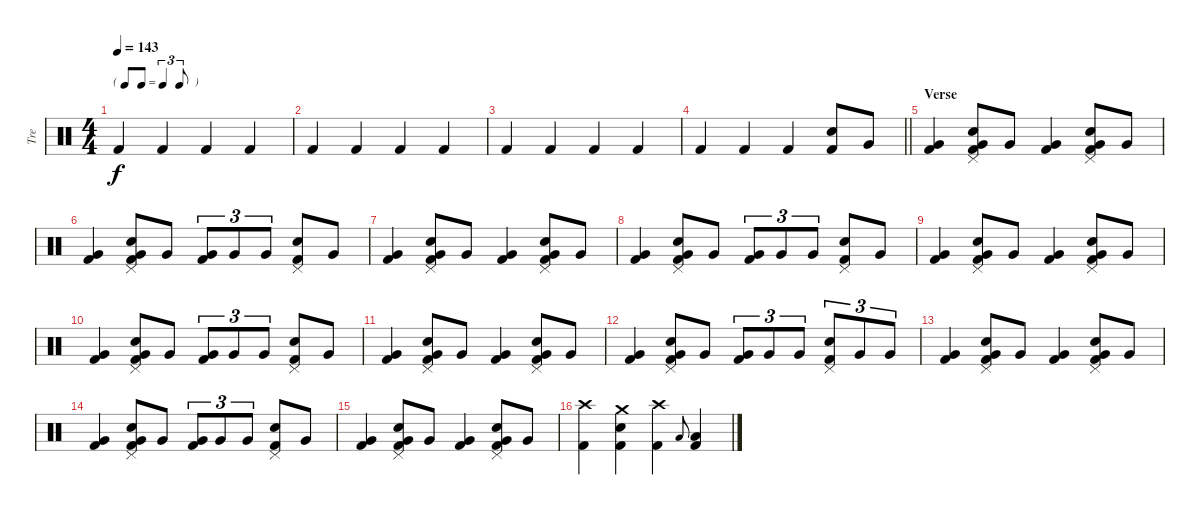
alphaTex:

\track ("Tre" "Tre") {instrument percussion}
\staff {score}
\articulation defaults
\ts (4 4)
\tf triplet8th
\tempo 143
\clef neutral
\ks c "Kick (hit) 2".4{dy f} "Kick (hit) 2".4 "Kick (hit) 2".4 "Kick (hit) 2".4
|
"Kick (hit) 2".4 "Kick (hit) 2".4 "Kick (hit) 2".4 "Kick (hit) 2".4 |
"Kick (hit) 2".4 "Kick (hit) 2".4 "Kick (hit) 2".4 "Kick (hit) 2".4 |
\barLineRight lightlight "Kick (hit) 2".4 "Kick (hit) 2".4 "Kick (hit) 2".4
("Snare (hit) 2" "Kick (hit) 2").8 "Very Low Tom (hit)".8 |
\section ("" "Verse")
("Very Low Tom (hit)" "Kick (hit) 2").4 ("Pedal Hi-Hat (hit)" "Snare (hit) 2" "Very Low Tom (hit)" "Kick (hit) 2").8 "Very Low Tom (hit)".8 ("Very Low Tom (hit)" "Kick (hit) 2").4 ("Pedal Hi-Hat (hit)" "Snare (hit) 2" "Very Low Tom (hit)" "Kick (hit) 2").8 "Very Low Tom (hit)".8 |
("Very Low Tom (hit)" "Kick (hit) 2").4 ("Pedal Hi-Hat (hit)" "Snare (hit) 2" "Very Low Tom (hit)" "Kick (hit) 2").8 "Very Low Tom (hit)".8 ("Very Low Tom (hit)" "Kick (hit) 2").8{tu (3 2)} "Very Low Tom (hit)".8{tu (3 2)} "Very Low Tom (hit)".8{tu (3 2)} ("Pedal Hi-Hat (hit)" "Snare (hit) 2" "Kick (hit) 2").8 "Very Low Tom (hit)".8 |
("Very Low Tom (hit)" "Kick (hit) 2").4 ("Pedal Hi-Hat (hit)" "Snare (hit) 2" "Very Low Tom (hit)" "Kick (hit) 2").8 "Very Low Tom (hit)".8 ("Very Low Tom (hit)" "Kick (hit) 2").4 ("Pedal Hi-Hat (hit)" "Snare (hit) 2" "Very Low Tom (hit)" "Kick (hit) 2").8 "Very Low Tom (hit)".8 |
("Very Low Tom (hit)" "Kick (hit) 2").4 ("Pedal Hi-Hat (hit)" "Snare (hit) 2" "Very Low Tom (hit)" "Kick (hit) 2").8 "Very Low Tom (hit)".8 ("Very Low Tom (hit)" "Kick (hit) 2").8{tu (3 2)} "Very Low Tom (hit)".8{tu (3 2)} "Very Low Tom (hit)".8{tu (3 2)} ("Pedal Hi-Hat (hit)" "Snare (hit) 2" "Kick (hit) 2").8 "Very Low Tom (hit)".8 |
("Very Low Tom (hit)" "Kick (hit) 2").4 ("Pedal Hi-Hat (hit)" "Snare (hit) 2" "Very Low Tom (hit)" "Kick (hit) 2").8 "Very Low Tom (hit)".8 ("Very Low Tom (hit)" "Kick (hit) 2").4 ("Pedal Hi-Hat (hit)" "Snare (hit) 2" "Very Low Tom (hit)" "Kick (hit) 2").8 "Very Low Tom (hit)".8 |
("Very Low Tom (hit)" "Kick (hit) 2").4 ("Pedal Hi-Hat (hit)" "Snare (hit) 2" "Very Low Tom (hit)" "Kick (hit) 2").8 "Very Low Tom (hit)".8 ("Very Low Tom (hit)" "Kick (hit) 2").8{tu (3 2)} "Very Low Tom (hit)".8{tu (3 2)} "Very Low Tom (hit)".8{tu (3 2)} ("Pedal Hi-Hat (hit)" "Snare (hit) 2" "Kick (hit) 2").8 "Very Low Tom (hit)".8 |
("Very Low Tom (hit)" "Kick (hit) 2").4 ("Pedal Hi-Hat (hit)" "Snare (hit) 2" "Very Low Tom (hit)" "Kick (hit) 2").8 "Very Low Tom (hit)".8 ("Very Low Tom (hit)" "Kick (hit) 2").4 ("Pedal Hi-Hat (hit)" "Snare (hit) 2" "Very Low Tom (hit)" "Kick (hit) 2").8 "Very Low Tom (hit)".8 |
("Very Low Tom (hit)" "Kick (hit) 2").4 ("Pedal Hi-Hat (hit)" "Snare (hit) 2" "Very Low Tom (hit)" "Kick (hit) 2").8 "Very Low Tom (hit)".8 ("Very Low Tom (hit)" "Kick (hit) 2").8{tu (3 2)} "Very Low Tom (hit)".8{tu (3 2)} "Very Low Tom (hit)".8{tu (3 2)} ("Pedal Hi-Hat (hit)" "Snare (hit) 2" "Kick (hit) 2").8{tu (3 2)} "Very Low Tom (hit)".8{tu (3 2)} "Very Low Tom (hit)".8{tu (3 2)} |
("Very Low Tom (hit)" "Kick (hit) 2").4 ("Pedal Hi-Hat (hit)" "Snare (hit) 2" "Very Low Tom (hit)" "Kick (hit) 2").8 "Very Low Tom (hit)".8 ("Very Low Tom (hit)" "Kick (hit) 2").4 ("Pedal Hi-Hat (hit)" "Snare (hit) 2" "Very Low Tom (hit)" "Kick (hit) 2").8 "Very Low Tom (hit)".8 |
("Very Low Tom (hit)" "Kick (hit) 2").4 ("Pedal Hi-Hat (hit)" "Snare (hit) 2" "Very Low Tom (hit)" "Kick (hit) 2").8 "Very Low Tom (hit)".8 ("Very Low Tom (hit)" "Kick (hit) 2").8{tu (3 2)} "Very Low Tom (hit)".8{tu (3 2)} "Very Low Tom (hit)".8{tu (3 2)} ("Pedal Hi-Hat (hit)" "Snare (hit) 2" "Kick (hit) 2").8 "Very Low Tom (hit)".8 |
("Very Low Tom (hit)" "Kick (hit) 2").4 ("Pedal Hi-Hat (hit)" "Snare (hit) 2" "Very Low Tom (hit)" "Kick (hit) 2").8 "Very Low Tom (hit)".8 ("Very Low Tom (hit)" "Kick (hit) 2").4 ("Pedal Hi-Hat (hit)" "Snare (hit) 2" "Very Low Tom (hit)" "Kick (hit) 2").8 "Very Low Tom (hit)".8 |
("Crash high (hit)" "Kick (hit) 2").4 ("Crash medium (hit)" "Snare (hit) 2" "Kick (hit) 2").4 ("Crash high (hit)" "Kick (hit) 2").4 "Low Floor Tom (hit)".8{gr onbeat} ("Low Floor Tom (hit)" "Kick (hit) 2").4
